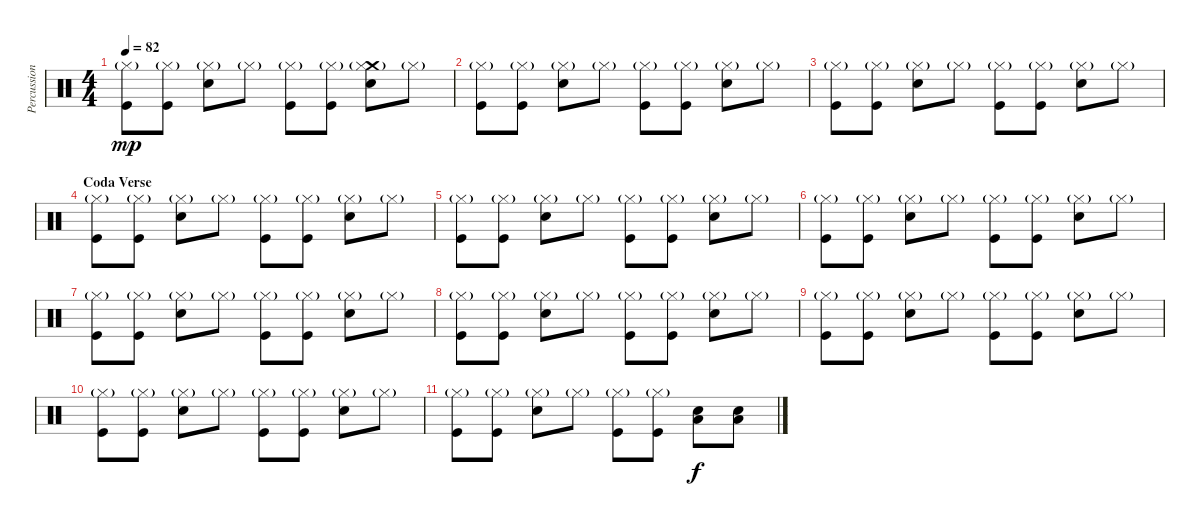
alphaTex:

\track ("Percussion" "Percussion") {instrument percussion}
\staff {score}
\articulation defaults
\ts (4 4)
\tempo 82
\clef neutral
\ks c
("Hi-Hat (closed)"{g} "Kick (hit)").8{dy mp} ("Hi-Hat (closed)"{g} "Kick (hit)").8 ("Hi-Hat (closed)"{g} "Electric Snare (hit)").8 "Hi-Hat (closed)"{g}.8 ("Hi-Hat (closed)"{g} "Kick (hit)").8 ("Hi-Hat (closed)"{g} "Kick (hit)").8 ("Crash medium (hit)" "Hi-Hat (closed)"{g} "Electric Snare (hit)").8 "Hi-Hat (closed)"{g}.8 |
("Hi-Hat (closed)"{g} "Kick (hit)").8 ("Hi-Hat (closed)"{g} "Kick (hit)").8 ("Hi-Hat (closed)"{g} "Electric Snare (hit)").8 "Hi-Hat (closed)"{g}.8 ("Hi-Hat (closed)"{g} "Kick (hit)").8 ("Hi-Hat (closed)"{g} "Kick (hit)").8 ("Hi-Hat (closed)"{g} "Electric Snare (hit)").8 "Hi-Hat (closed)"{g}.8 |
("Hi-Hat (closed)"{g} "Kick (hit)").8 ("Hi-Hat (closed)"{g} "Kick (hit)").8 ("Hi-Hat (closed)"{g} "Electric Snare (hit)").8 "Hi-Hat (closed)"{g}.8 ("Hi-Hat (closed)"{g} "Kick (hit)").8 ("Hi-Hat (closed)"{g} "Kick (hit)").8 ("Hi-Hat (closed)"{g} "Electric Snare (hit)").8 "Hi-Hat (closed)"{g}.8 |
\section ("" "Coda Verse")
("Hi-Hat (closed)"{g} "Kick (hit)").8 ("Hi-Hat (closed)"{g} "Kick (hit)").8 ("Hi-Hat (closed)"{g} "Electric Snare (hit)").8 "Hi-Hat (closed)"{g}.8 ("Hi-Hat (closed)"{g} "Kick (hit)").8 ("Hi-Hat (closed)"{g} "Kick (hit)").8 ("Hi-Hat (closed)"{g} "Electric Snare (hit)").8 "Hi-Hat (closed)"{g}.8 |
("Hi-Hat (closed)"{g} "Kick (hit)").8 ("Hi-Hat (closed)"{g} "Kick (hit)").8 ("Hi-Hat (closed)"{g} "Electric Snare (hit)").8 "Hi-Hat (closed)"{g}.8 ("Hi-Hat (closed)"{g} "Kick (hit)").8 ("Hi-Hat (closed)"{g} "Kick (hit)").8 ("Hi-Hat (closed)"{g} "Electric Snare (hit)").8 "Hi-Hat (closed)"{g}.8 |
("Hi-Hat (closed)"{g} "Kick (hit)").8 ("Hi-Hat (closed)"{g} "Kick (hit)").8 ("Hi-Hat (closed)"{g} "Electric Snare (hit)").8 "Hi-Hat (closed)"{g}.8 ("Hi-Hat (closed)"{g} "Kick (hit)").8 ("Hi-Hat (closed)"{g} "Kick (hit)").8 ("Hi-Hat (closed)"{g} "Electric Snare (hit)").8 "Hi-Hat (closed)"{g}.8 |
("Hi-Hat (closed)"{g} "Kick (hit)").8 ("Hi-Hat (closed)"{g} "Kick (hit)").8 ("Hi-Hat (closed)"{g} "Electric Snare (hit)").8 "Hi-Hat (closed)"{g}.8 ("Hi-Hat (closed)"{g} "Kick (hit)").8{volume 0} ("Hi-Hat (closed)"{g} "Kick (hit)").8 ("Hi-Hat (closed)"{g} "Electric Snare (hit)").8 "Hi-Hat (closed)"{g}.8 |
("Hi-Hat (closed)"{g} "Kick (hit)").8 ("Hi-Hat (closed)"{g} "Kick (hit)").8 ("Hi-Hat (closed)"{g} "Electric Snare (hit)").8 "Hi-Hat (closed)"{g}.8 ("Hi-Hat (closed)"{g} "Kick (hit)").8 ("Hi-Hat (closed)"{g} "Kick (hit)").8 ("Hi-Hat (closed)"{g} "Electric Snare (hit)").8 "Hi-Hat (closed)"{g}.8 |
("Hi-Hat (closed)"{g} "Kick (hit)").8 ("Hi-Hat (closed)"{g} "Kick (hit)").8 ("Hi-Hat (closed)"{g} "Electric Snare (hit)").8 "Hi-Hat (closed)"{g}.8 ("Hi-Hat (closed)"{g} "Kick (hit)").8 ("Hi-Hat (closed)"{g} "Kick (hit)").8 ("Hi-Hat (closed)"{g} "Electric Snare (hit)").8 "Hi-Hat (closed)"{g}.8 |
("Hi-Hat (closed)"{g} "Kick (hit)").8 ("Hi-Hat (closed)"{g} "Kick (hit)").8 ("Hi-Hat (closed)"{g} "Electric Snare (hit)").8 "Hi-Hat (closed)"{g}.8 ("Hi-Hat (closed)"{g} "Kick (hit)").8 ("Hi-Hat (closed)"{g} "Kick (hit)").8 ("Hi-Hat (closed)"{g} "Electric Snare (hit)").8 "Hi-Hat (closed)"{g}.8 |
("Hi-Hat (closed)"{g} "Kick (hit)").8 ("Hi-Hat (closed)"{g} "Kick (hit)").8 ("Hi-Hat (closed)"{g} "Electric Snare (hit)").8 "Hi-Hat (closed)"{g}.8 ("Hi-Hat (closed)"{g} "Kick (hit)").8 ("Hi-Hat (closed)"{g} "Kick (hit)").8 ("Low Floor Tom (hit)" "Electric Snare (hit)").8{dy f} ("Low Floor Tom (hit)" "Electric Snare (hit)").8
